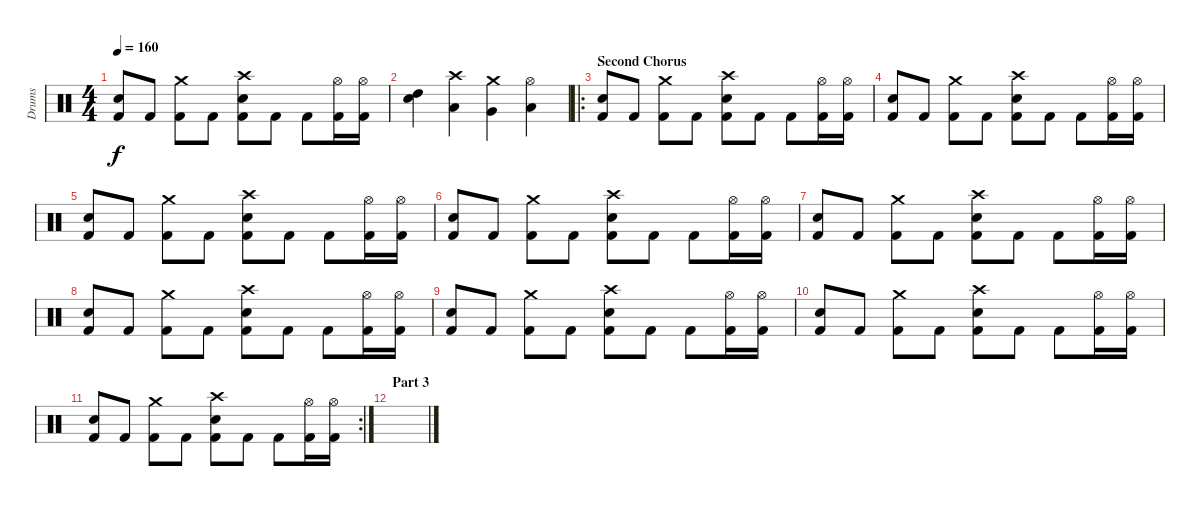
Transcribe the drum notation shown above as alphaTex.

\track ("Drums" "Drums") {instrument percussion}
\staff {score}
\articulation defaults
\ts (4 4)
\tempo 160
\clef neutral
\ks c
("Kick (hit) 2" "Electric Snare (hit)").8{dy f} "Kick (hit) 2".8 ("Kick (hit) 2" "Crash medium (hit)").8 "Kick (hit) 2".8 ("Kick (hit) 2" "Crash high (hit)" "Electric Snare (hit)").8 "Kick (hit) 2".8 "Kick (hit) 2".8 ("Kick (hit) 2" "Hi-Hat (open)").16 ("Kick (hit) 2" "Hi-Hat (open)").16 |
("Electric Snare (hit)" "High Tom (hit)").4 ("Crash high (hit)" "Low Tom (hit)").4 ("Crash medium (hit)" "Very Low Tom (hit)").4 ("Hi-Hat (open)" "Low Floor Tom (hit)").4 |
\ro
\section ("" "Second Chorus")
("Kick (hit) 2" "Electric Snare (hit)").8 "Kick (hit) 2".8 ("Kick (hit) 2" "Crash medium (hit)").8 "Kick (hit) 2".8 ("Kick (hit) 2" "Crash high (hit)" "Electric Snare (hit)").8 "Kick (hit) 2".8 "Kick (hit) 2".8 ("Kick (hit) 2" "Hi-Hat (open)").16 ("Kick (hit) 2" "Hi-Hat (open)").16 |
("Kick (hit) 2" "Electric Snare (hit)").8 "Kick (hit) 2".8 ("Kick (hit) 2" "Crash medium (hit)").8 "Kick (hit) 2".8 ("Kick (hit) 2" "Crash high (hit)" "Electric Snare (hit)").8 "Kick (hit) 2".8 "Kick (hit) 2".8 ("Kick (hit) 2" "Hi-Hat (open)").16 ("Kick (hit) 2" "Hi-Hat (open)").16 |
("Kick (hit) 2" "Electric Snare (hit)").8 "Kick (hit) 2".8 ("Kick (hit) 2" "Crash medium (hit)").8 "Kick (hit) 2".8 ("Kick (hit) 2" "Crash high (hit)" "Electric Snare (hit)").8 "Kick (hit) 2".8 "Kick (hit) 2".8 ("Kick (hit) 2" "Hi-Hat (open)").16 ("Kick (hit) 2" "Hi-Hat (open)").16 |
("Kick (hit) 2" "Electric Snare (hit)").8 "Kick (hit) 2".8 ("Kick (hit) 2" "Crash medium (hit)").8 "Kick (hit) 2".8 ("Kick (hit) 2" "Crash high (hit)" "Electric Snare (hit)").8 "Kick (hit) 2".8 "Kick (hit) 2".8 ("Kick (hit) 2" "Hi-Hat (open)").16 ("Kick (hit) 2" "Hi-Hat (open)").16 |
("Kick (hit) 2" "Electric Snare (hit)").8 "Kick (hit) 2".8 ("Kick (hit) 2" "Crash medium (hit)").8 "Kick (hit) 2".8 ("Kick (hit) 2" "Crash high (hit)" "Electric Snare (hit)").8 "Kick (hit) 2".8 "Kick (hit) 2".8 ("Kick (hit) 2" "Hi-Hat (open)").16 ("Kick (hit) 2" "Hi-Hat (open)").16 |
("Kick (hit) 2" "Electric Snare (hit)").8 "Kick (hit) 2".8 ("Kick (hit) 2" "Crash medium (hit)").8 "Kick (hit) 2".8 ("Kick (hit) 2" "Crash high (hit)" "Electric Snare (hit)").8 "Kick (hit) 2".8 "Kick (hit) 2".8 ("Kick (hit) 2" "Hi-Hat (open)").16 ("Kick (hit) 2" "Hi-Hat (open)").16 |
("Kick (hit) 2" "Electric Snare (hit)").8 "Kick (hit) 2".8 ("Kick (hit) 2" "Crash medium (hit)").8 "Kick (hit) 2".8 ("Kick (hit) 2" "Crash high (hit)" "Electric Snare (hit)").8 "Kick (hit) 2".8 "Kick (hit) 2".8 ("Kick (hit) 2" "Hi-Hat (open)").16 ("Kick (hit) 2" "Hi-Hat (open)").16 |
("Kick (hit) 2" "Electric Snare (hit)").8 "Kick (hit) 2".8 ("Kick (hit) 2" "Crash medium (hit)").8 "Kick (hit) 2".8 ("Kick (hit) 2" "Crash high (hit)" "Electric Snare (hit)").8 "Kick (hit) 2".8 "Kick (hit) 2".8 ("Kick (hit) 2" "Hi-Hat (open)").16 ("Kick (hit) 2" "Hi-Hat (open)").16 |
\rc 2
("Kick (hit) 2" "Electric Snare (hit)").8 "Kick (hit) 2".8 ("Kick (hit) 2" "Crash medium (hit)").8 "Kick (hit) 2".8 ("Kick (hit) 2" "Crash high (hit)" "Electric Snare (hit)").8 "Kick (hit) 2".8 "Kick (hit) 2".8 ("Kick (hit) 2" "Hi-Hat (open)").16 ("Kick (hit) 2" "Hi-Hat (open)").16 |
\section ("" "Part 3")
